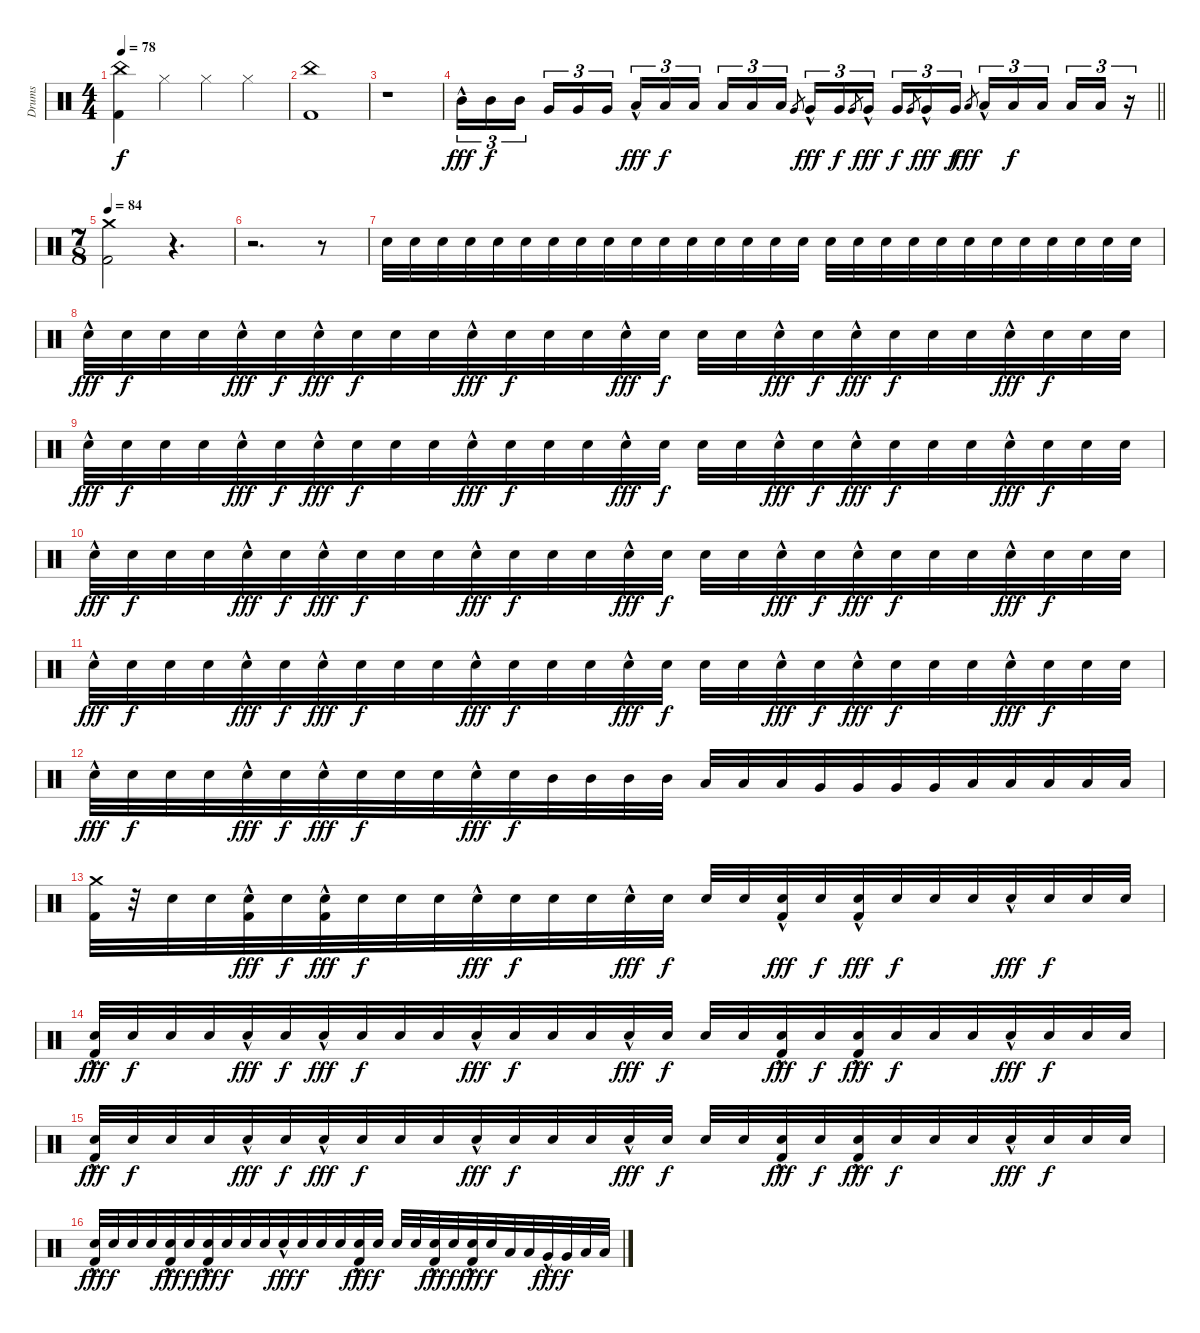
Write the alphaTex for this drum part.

\track ("Drums" "Drums") {instrument percussion}
\staff {score}
\articulation defaults
\ts (4 4)
\tempo 78
\clef neutral
\ks c
("China (hit)" "Kick (hit) 2").4{dy f} "Hi-Hat (closed)".4 "Hi-Hat (closed)".4 "Hi-Hat (closed)".4 |
("China (hit)" "Kick (hit) 2").1 |
r.1{volume 6} |
\barLineRight lightlight "Mid Tom (hit)"{hac}.16{tu (3 2) dy fff volume 16} "Mid Tom (hit)".16{tu (3 2) dy f} "Mid Tom (hit)".16{tu (3 2) beam splitsecondary} "Very Low Tom (hit)".16{tu (3 2)} "Very Low Tom (hit)".16{tu (3 2)} "Very Low Tom (hit)".16{tu (3 2)} "Low Tom (hit)"{hac}.16{tu (3 2) dy fff} "Low Tom (hit)".16{tu (3 2) dy f} "Low Tom (hit)".16{tu (3 2) beam splitsecondary} "Low Floor Tom (hit)".16{tu (3 2)} "Low Floor Tom (hit)".16{tu (3 2)} "Low Floor Tom (hit)".16{tu (3 2)} "Very Low Tom (hit)".8{gr} "Very Low Tom (hit)"{hac}.16{tu (3 2) dy fff} "Very Low Tom (hit)".16{tu (3 2) dy f} "Very Low Tom (hit)".8{gr} "Very Low Tom (hit)"{hac}.16{tu (3 2) dy fff beam splitsecondary} "Very Low Tom (hit)".16{tu (3 2) dy f} "Very Low Tom (hit)".8{gr} "Very Low Tom (hit)"{hac}.16{tu (3 2) dy fff} "Very Low Tom (hit)".16{tu (3 2) dy f} "Low Floor Tom (hit)".8{gr dy fff} "Low Floor Tom (hit)"{hac}.16{tu (3 2)} "Low Floor Tom (hit)".16{tu (3 2) dy f} "Low Floor Tom (hit)".16{tu (3 2) beam splitsecondary} "Low Floor Tom (hit)".16{tu (3 2)} "Low Floor Tom (hit)".16{tu (3 2)}
r.16{tu (3 2)} |
\ts (7 8)
\tempo 84
("Crash medium (hit)" "Kick (hit) 2").2 r.4{d} |
r.2{d} r.8{volume 9} |
"Electric Snare (hit)".32 "Electric Snare (hit)".32 "Electric Snare (hit)".32 "Electric Snare (hit)".32 "Electric Snare (hit)".32 "Electric Snare (hit)".32 "Electric Snare (hit)".32 "Electric Snare (hit)".32 "Electric Snare (hit)".32 "Electric Snare (hit)".32 "Electric Snare (hit)".32 "Electric Snare (hit)".32 "Electric Snare (hit)".32 "Electric Snare (hit)".32 "Electric Snare (hit)".32 "Electric Snare (hit)".32 "Electric Snare (hit)".32 "Electric Snare (hit)".32 "Electric Snare (hit)".32 "Electric Snare (hit)".32 "Electric Snare (hit)".32 "Electric Snare (hit)".32 "Electric Snare (hit)".32 "Electric Snare (hit)".32 "Electric Snare (hit)".32 "Electric Snare (hit)".32 "Electric Snare (hit)".32 "Electric Snare (hit)".32 |
"Electric Snare (hit)"{hac}.32{dy fff} "Electric Snare (hit)".32{dy f} "Electric Snare (hit)".32 "Electric Snare (hit)".32 "Electric Snare (hit)"{hac}.32{dy fff} "Electric Snare (hit)".32{dy f} "Electric Snare (hit)"{hac}.32{dy fff} "Electric Snare (hit)".32{dy f} "Electric Snare (hit)".32 "Electric Snare (hit)".32 "Electric Snare (hit)"{hac}.32{dy fff} "Electric Snare (hit)".32{dy f} "Electric Snare (hit)".32 "Electric Snare (hit)".32 "Electric Snare (hit)"{hac}.32{dy fff} "Electric Snare (hit)".32{dy f} "Electric Snare (hit)".32 "Electric Snare (hit)".32 "Electric Snare (hit)"{hac}.32{dy fff} "Electric Snare (hit)".32{dy f} "Electric Snare (hit)"{hac}.32{dy fff} "Electric Snare (hit)".32{dy f} "Electric Snare (hit)".32 "Electric Snare (hit)".32 "Electric Snare (hit)"{hac}.32{dy fff} "Electric Snare (hit)".32{dy f} "Electric Snare (hit)".32 "Electric Snare (hit)".32 |
"Electric Snare (hit)"{hac}.32{dy fff} "Electric Snare (hit)".32{dy f} "Electric Snare (hit)".32 "Electric Snare (hit)".32 "Electric Snare (hit)"{hac}.32{dy fff} "Electric Snare (hit)".32{dy f} "Electric Snare (hit)"{hac}.32{dy fff} "Electric Snare (hit)".32{dy f} "Electric Snare (hit)".32 "Electric Snare (hit)".32 "Electric Snare (hit)"{hac}.32{dy fff} "Electric Snare (hit)".32{dy f} "Electric Snare (hit)".32 "Electric Snare (hit)".32 "Electric Snare (hit)"{hac}.32{dy fff} "Electric Snare (hit)".32{dy f} "Electric Snare (hit)".32 "Electric Snare (hit)".32 "Electric Snare (hit)"{hac}.32{dy fff} "Electric Snare (hit)".32{dy f} "Electric Snare (hit)"{hac}.32{dy fff} "Electric Snare (hit)".32{dy f} "Electric Snare (hit)".32 "Electric Snare (hit)".32 "Electric Snare (hit)"{hac}.32{dy fff} "Electric Snare (hit)".32{dy f} "Electric Snare (hit)".32 "Electric Snare (hit)".32 |
"Electric Snare (hit)"{hac}.32{dy fff} "Electric Snare (hit)".32{dy f} "Electric Snare (hit)".32 "Electric Snare (hit)".32 "Electric Snare (hit)"{hac}.32{dy fff} "Electric Snare (hit)".32{dy f} "Electric Snare (hit)"{hac}.32{dy fff} "Electric Snare (hit)".32{dy f} "Electric Snare (hit)".32 "Electric Snare (hit)".32 "Electric Snare (hit)"{hac}.32{dy fff} "Electric Snare (hit)".32{dy f} "Electric Snare (hit)".32 "Electric Snare (hit)".32 "Electric Snare (hit)"{hac}.32{dy fff} "Electric Snare (hit)".32{dy f} "Electric Snare (hit)".32 "Electric Snare (hit)".32 "Electric Snare (hit)"{hac}.32{dy fff} "Electric Snare (hit)".32{dy f} "Electric Snare (hit)"{hac}.32{dy fff} "Electric Snare (hit)".32{dy f} "Electric Snare (hit)".32 "Electric Snare (hit)".32 "Electric Snare (hit)"{hac}.32{dy fff} "Electric Snare (hit)".32{dy f} "Electric Snare (hit)".32 "Electric Snare (hit)".32 |
"Electric Snare (hit)"{hac}.32{dy fff} "Electric Snare (hit)".32{dy f} "Electric Snare (hit)".32 "Electric Snare (hit)".32 "Electric Snare (hit)"{hac}.32{dy fff} "Electric Snare (hit)".32{dy f} "Electric Snare (hit)"{hac}.32{dy fff} "Electric Snare (hit)".32{dy f} "Electric Snare (hit)".32 "Electric Snare (hit)".32 "Electric Snare (hit)"{hac}.32{dy fff} "Electric Snare (hit)".32{dy f} "Electric Snare (hit)".32 "Electric Snare (hit)".32 "Electric Snare (hit)"{hac}.32{dy fff} "Electric Snare (hit)".32{dy f} "Electric Snare (hit)".32 "Electric Snare (hit)".32 "Electric Snare (hit)"{hac}.32{dy fff} "Electric Snare (hit)".32{dy f} "Electric Snare (hit)"{hac}.32{dy fff} "Electric Snare (hit)".32{dy f} "Electric Snare (hit)".32 "Electric Snare (hit)".32 "Electric Snare (hit)"{hac}.32{dy fff} "Electric Snare (hit)".32{dy f} "Electric Snare (hit)".32 "Electric Snare (hit)".32 |
"Electric Snare (hit)"{hac}.32{dy fff} "Electric Snare (hit)".32{dy f} "Electric Snare (hit)".32 "Electric Snare (hit)".32 "Electric Snare (hit)"{hac}.32{dy fff} "Electric Snare (hit)".32{dy f} "Electric Snare (hit)"{hac}.32{dy fff} "Electric Snare (hit)".32{dy f} "Electric Snare (hit)".32 "Electric Snare (hit)".32 "Electric Snare (hit)"{hac}.32{dy fff} "Electric Snare (hit)".32{dy f} "Mid Tom (hit)".32 "Mid Tom (hit)".32 "Mid Tom (hit)".32 "Mid Tom (hit)".32 "Low Tom (hit)".32 "Low Tom (hit)".32 "Low Tom (hit)".32 "Very Low Tom (hit)".32 "Very Low Tom (hit)".32 "Very Low Tom (hit)".32 "Very Low Tom (hit)".32 "Low Floor Tom (hit)".32 "Low Floor Tom (hit)".32 "Low Floor Tom (hit)".32 "Low Floor Tom (hit)".32 "Low Floor Tom (hit)".32 |
("Crash medium (hit)" "Kick (hit) 2").32 r.32 "Electric Snare (hit)".32 "Electric Snare (hit)".32 ("Electric Snare (hit)"{hac} "Kick (hit) 2").32{dy fff} "Electric Snare (hit)".32{dy f} ("Electric Snare (hit)"{hac} "Kick (hit) 2").32{dy fff} "Electric Snare (hit)".32{dy f} "Electric Snare (hit)".32 "Electric Snare (hit)".32 "Electric Snare (hit)"{hac}.32{dy fff} "Electric Snare (hit)".32{dy f} "Electric Snare (hit)".32 "Electric Snare (hit)".32 "Electric Snare (hit)"{hac}.32{dy fff} "Electric Snare (hit)".32{dy f} "Electric Snare (hit)".32 "Electric Snare (hit)".32 ("Electric Snare (hit)"{hac} "Kick (hit) 2").32{dy fff} "Electric Snare (hit)".32{dy f} ("Electric Snare (hit)"{hac} "Kick (hit) 2").32{dy fff} "Electric Snare (hit)".32{dy f} "Electric Snare (hit)".32 "Electric Snare (hit)".32 "Electric Snare (hit)"{hac}.32{dy fff} "Electric Snare (hit)".32{dy f} "Electric Snare (hit)".32 "Electric Snare (hit)".32 |
("Electric Snare (hit)"{hac} "Kick (hit) 2").32{dy fff} "Electric Snare (hit)".32{dy f} "Electric Snare (hit)".32 "Electric Snare (hit)".32 "Electric Snare (hit)"{hac}.32{dy fff} "Electric Snare (hit)".32{dy f} "Electric Snare (hit)"{hac}.32{dy fff} "Electric Snare (hit)".32{dy f} "Electric Snare (hit)".32 "Electric Snare (hit)".32 "Electric Snare (hit)"{hac}.32{dy fff} "Electric Snare (hit)".32{dy f} "Electric Snare (hit)".32 "Electric Snare (hit)".32 "Electric Snare (hit)"{hac}.32{dy fff} "Electric Snare (hit)".32{dy f} "Electric Snare (hit)".32 "Electric Snare (hit)".32 ("Electric Snare (hit)"{hac} "Kick (hit) 2").32{dy fff} "Electric Snare (hit)".32{dy f} ("Electric Snare (hit)"{hac} "Kick (hit) 2").32{dy fff} "Electric Snare (hit)".32{dy f} "Electric Snare (hit)".32 "Electric Snare (hit)".32 "Electric Snare (hit)"{hac}.32{dy fff} "Electric Snare (hit)".32{dy f} "Electric Snare (hit)".32 "Electric Snare (hit)".32 |
("Electric Snare (hit)"{hac} "Kick (hit) 2").32{dy fff} "Electric Snare (hit)".32{dy f} "Electric Snare (hit)".32 "Electric Snare (hit)".32 "Electric Snare (hit)"{hac}.32{dy fff} "Electric Snare (hit)".32{dy f} "Electric Snare (hit)"{hac}.32{dy fff} "Electric Snare (hit)".32{dy f} "Electric Snare (hit)".32 "Electric Snare (hit)".32 "Electric Snare (hit)"{hac}.32{dy fff} "Electric Snare (hit)".32{dy f} "Electric Snare (hit)".32 "Electric Snare (hit)".32 "Electric Snare (hit)"{hac}.32{dy fff} "Electric Snare (hit)".32{dy f} "Electric Snare (hit)".32 "Electric Snare (hit)".32 ("Electric Snare (hit)"{hac} "Kick (hit) 2").32{dy fff} "Electric Snare (hit)".32{dy f} ("Electric Snare (hit)"{hac} "Kick (hit) 2").32{dy fff} "Electric Snare (hit)".32{dy f} "Electric Snare (hit)".32 "Electric Snare (hit)".32 "Electric Snare (hit)"{hac}.32{dy fff} "Electric Snare (hit)".32{dy f} "Electric Snare (hit)".32 "Electric Snare (hit)".32 |
("Electric Snare (hit)"{hac} "Kick (hit) 2").32{dy fff} "Electric Snare (hit)".32{dy f} "Electric Snare (hit)".32 "Electric Snare (hit)".32 ("Electric Snare (hit)"{hac} "Kick (hit) 2").32{dy fff} "Electric Snare (hit)".32{dy f} ("Electric Snare (hit)"{hac} "Kick (hit) 2").32{dy fff} "Electric Snare (hit)".32{dy f} "Electric Snare (hit)".32 "Electric Snare (hit)".32 "Electric Snare (hit)"{hac}.32{dy fff} "Electric Snare (hit)".32{dy f} "Electric Snare (hit)".32 "Electric Snare (hit)".32 ("Electric Snare (hit)"{hac} "Kick (hit) 2").32{dy fff} "Electric Snare (hit)".32{dy f} "Electric Snare (hit)".32 "Electric Snare (hit)".32 ("Electric Snare (hit)"{hac} "Kick (hit) 2").32{dy fff} "Electric Snare (hit)".32{dy f} ("Electric Snare (hit)"{hac} "Kick (hit) 2").32{dy fff} "Electric Snare (hit)".32{dy f} "Low Tom (hit)".32 "Low Tom (hit)".32 "Very Low Tom (hit)"{hac}.32{dy fff} "Very Low Tom (hit)".32{dy f} "Low Floor Tom (hit)".32 "Low Floor Tom (hit)".32
